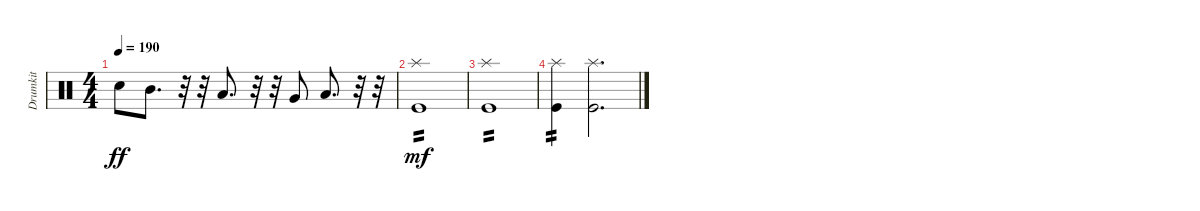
\track ("Drumkit" "Drumkit") {instrument percussion}
\staff {score}
\articulation defaults
\ts (4 4)
\tempo 190
\clef neutral
\ks c "Snare (hit) 2".8{dy ff} "Mid Tom (hit)".8{d}
r.32 r.32 "Low Tom (hit)".8{d} r.32 r.32 "Very Low Tom (hit)".8 "Low Floor Tom (hit)".8{d} r.32 r.32 |
("Splash (hit)" "Kick (hit)").1{tp 2 dy mf} |
("Splash (hit)" "Kick (hit)").1{tp 2} |
("Splash (hit)" "Kick (hit)").4{tp 2} ("Kick (hit)" "Splash (hit)").2{d}
